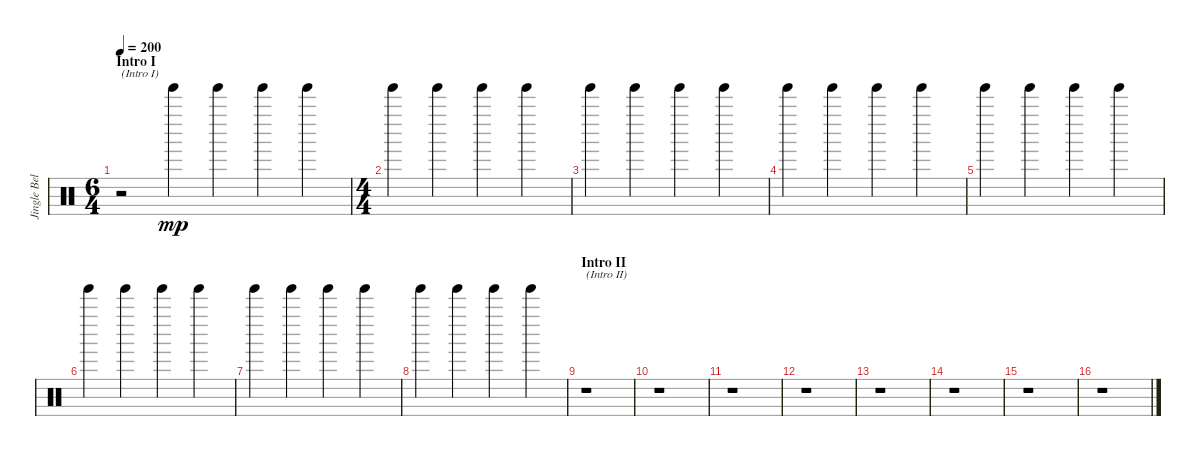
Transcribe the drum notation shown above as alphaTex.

\track ("Jingle Bells" "Jingle Bel") {instrument percussion}
\staff {score}
\articulation defaults
\ts (6 4)
\section ("" "Intro I")
\tempo 200
\clef neutral
\ks c
r.2{txt "(Intro I)" dy mp} "Tinkle Bell (hit)".4 "Tinkle Bell (hit)".4 "Tinkle Bell (hit)".4 "Tinkle Bell (hit)".4 |
\ts (4 4)
"Tinkle Bell (hit)".4 "Tinkle Bell (hit)".4 "Tinkle Bell (hit)".4 "Tinkle Bell (hit)".4 |
"Tinkle Bell (hit)".4 "Tinkle Bell (hit)".4 "Tinkle Bell (hit)".4 "Tinkle Bell (hit)".4 |
"Tinkle Bell (hit)".4 "Tinkle Bell (hit)".4 "Tinkle Bell (hit)".4 "Tinkle Bell (hit)".4 |
"Tinkle Bell (hit)".4 "Tinkle Bell (hit)".4 "Tinkle Bell (hit)".4 "Tinkle Bell (hit)".4 |
"Tinkle Bell (hit)".4 "Tinkle Bell (hit)".4 "Tinkle Bell (hit)".4 "Tinkle Bell (hit)".4 |
"Tinkle Bell (hit)".4 "Tinkle Bell (hit)".4 "Tinkle Bell (hit)".4 "Tinkle Bell (hit)".4 |
"Tinkle Bell (hit)".4 "Tinkle Bell (hit)".4 "Tinkle Bell (hit)".4 "Tinkle Bell (hit)".4 |
\section ("" "Intro II")
r.1{txt "(Intro II)"} |
r.1 |
r.1 |
r.1 |
r.1 |
r.1 |
r.1 |
r.1
